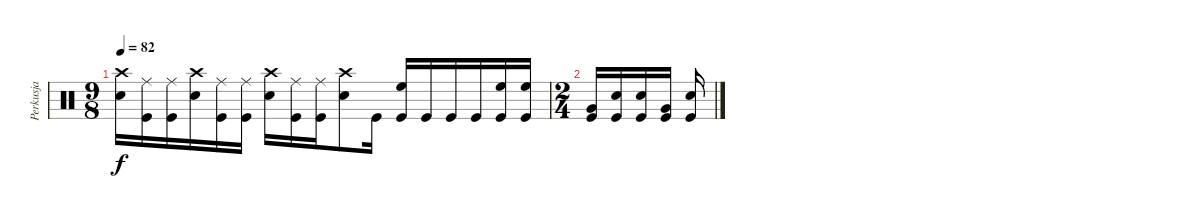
\track ("Perkusja" "Perkusja") {instrument percussion}
\staff {score}
\articulation defaults
\ts (9 8)
\tempo 82
\clef neutral
\ks c
("Crash high (hit)" "Electric Snare (hit)").16{dy f} ("Ride (middle)" "Kick (hit)").16 ("Ride (middle)" "Kick (hit)").16 ("Crash high (hit)" "Electric Snare (hit)").16 ("Ride (middle)" "Kick (hit)").16 ("Ride (middle)" "Kick (hit)").16 ("Crash high (hit)" "Electric Snare (hit)").16 ("Ride (middle)" "Kick (hit)").16 ("Ride (middle)" "Kick (hit)").16 ("Crash high (hit)" "Electric Snare (hit)").8 "Kick (hit)".16 ("High Floor Tom (hit)" "Kick (hit)").16 "Kick (hit)".16 "Kick (hit)".16 "Kick (hit)".16 ("High Floor Tom (hit)" "Kick (hit)").16 ("High Floor Tom (hit)" "Kick (hit)").16 |
\ts (2 4)
("Very Low Tom (hit)" "Kick (hit)").16 ("Electric Snare (hit)" "Kick (hit)").16 ("Electric Snare (hit)" "Kick (hit)").16 ("Very Low Tom (hit)" "Kick (hit)").16 ("Electric Snare (hit)" "Kick (hit)").16
